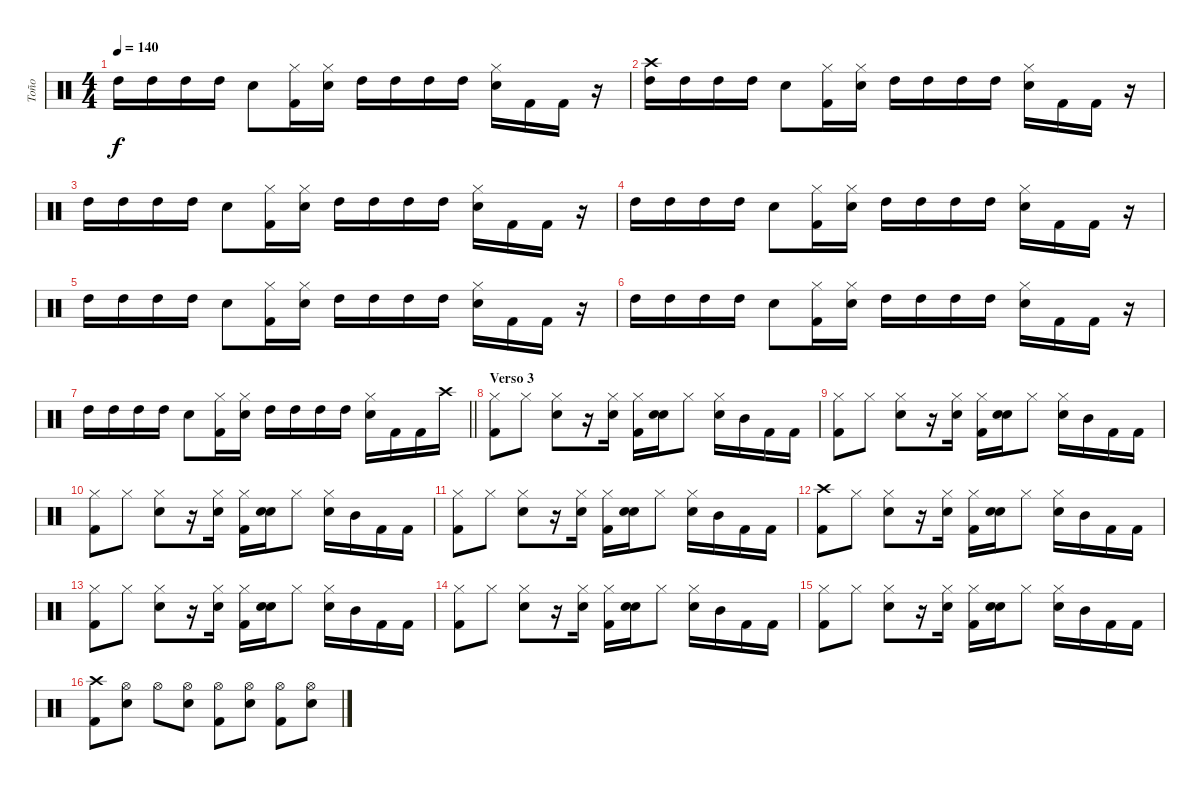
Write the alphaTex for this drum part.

\track ("Toño" "Toño") {instrument percussion}
\staff {score}
\articulation defaults
\ts (4 4)
\tempo 140
\clef neutral
\ks c "High Tom (hit)".16{dy f} "High Tom (hit)".16 "High Tom (hit)".16 "High Tom (hit)".16 "Electric Snare (hit)".8
("Hi-Hat (closed)" "Kick (hit) 2").16 ("Hi-Hat (closed)" "Electric Snare (hit)").16 "High Tom (hit)".16 "High Tom (hit)".16 "High Tom (hit)".16 "High Tom (hit)".16 ("Hi-Hat (closed)" "Electric Snare (hit)").16 "Kick (hit) 2".16 "Kick (hit) 2".16 r.16 |
("Crash high (hit)" "High Tom (hit)").16 "High Tom (hit)".16 "High Tom (hit)".16 "High Tom (hit)".16 "Electric Snare (hit)".8 ("Hi-Hat (closed)" "Kick (hit) 2").16 ("Hi-Hat (closed)" "Electric Snare (hit)").16 "High Tom (hit)".16 "High Tom (hit)".16 "High Tom (hit)".16 "High Tom (hit)".16 ("Hi-Hat (closed)" "Electric Snare (hit)").16 "Kick (hit) 2".16 "Kick (hit) 2".16 r.16 |
"High Tom (hit)".16 "High Tom (hit)".16 "High Tom (hit)".16 "High Tom (hit)".16 "Electric Snare (hit)".8 ("Hi-Hat (closed)" "Kick (hit) 2").16 ("Hi-Hat (closed)" "Electric Snare (hit)").16 "High Tom (hit)".16 "High Tom (hit)".16 "High Tom (hit)".16 "High Tom (hit)".16 ("Hi-Hat (closed)" "Electric Snare (hit)").16 "Kick (hit) 2".16 "Kick (hit) 2".16 r.16 |
"High Tom (hit)".16 "High Tom (hit)".16 "High Tom (hit)".16 "High Tom (hit)".16 "Electric Snare (hit)".8 ("Hi-Hat (closed)" "Kick (hit) 2").16 ("Hi-Hat (closed)" "Electric Snare (hit)").16 "High Tom (hit)".16 "High Tom (hit)".16 "High Tom (hit)".16 "High Tom (hit)".16 ("Hi-Hat (closed)" "Electric Snare (hit)").16 "Kick (hit) 2".16 "Kick (hit) 2".16 r.16 |
"High Tom (hit)".16 "High Tom (hit)".16 "High Tom (hit)".16 "High Tom (hit)".16 "Electric Snare (hit)".8 ("Hi-Hat (closed)" "Kick (hit) 2").16 ("Hi-Hat (closed)" "Electric Snare (hit)").16 "High Tom (hit)".16 "High Tom (hit)".16 "High Tom (hit)".16 "High Tom (hit)".16 ("Hi-Hat (closed)" "Electric Snare (hit)").16 "Kick (hit) 2".16 "Kick (hit) 2".16 r.16 |
"High Tom (hit)".16 "High Tom (hit)".16 "High Tom (hit)".16 "High Tom (hit)".16 "Electric Snare (hit)".8 ("Hi-Hat (closed)" "Kick (hit) 2").16 ("Hi-Hat (closed)" "Electric Snare (hit)").16 "High Tom (hit)".16 "High Tom (hit)".16 "High Tom (hit)".16 "High Tom (hit)".16 ("Hi-Hat (closed)" "Electric Snare (hit)").16 "Kick (hit) 2".16 "Kick (hit) 2".16 r.16 |
\barLineRight lightlight "High Tom (hit)".16 "High Tom (hit)".16 "High Tom (hit)".16 "High Tom (hit)".16 "Electric Snare (hit)".8
("Hi-Hat (closed)" "Kick (hit) 2").16 ("Hi-Hat (closed)" "Electric Snare (hit)").16 "High Tom (hit)".16 "High Tom (hit)".16 "High Tom (hit)".16 "High Tom (hit)".16 ("Hi-Hat (closed)" "Electric Snare (hit)").16 "Kick (hit) 2".16 "Kick (hit) 2".16 "Crash high (hit)".16 |
\section ("" "Verso 3")
("Hi-Hat (closed)" "Kick (hit) 2").8 "Hi-Hat (closed)".8 ("Hi-Hat (closed)" "Electric Snare (hit)").8 r.16 ("Hi-Hat (closed)" "Electric Snare (hit)").16 ("Hi-Hat (closed)" "Kick (hit) 2").16 ("Electric Snare (hit)" "Electric Snare (hit)").16 "Hi-Hat (closed)".8 ("Hi-Hat (closed)" "Electric Snare (hit)").16 "Mid Tom (hit)".16 "Kick (hit) 2".16 "Kick (hit) 2".16 |
("Hi-Hat (closed)" "Kick (hit) 2").8 "Hi-Hat (closed)".8 ("Hi-Hat (closed)" "Electric Snare (hit)").8 r.16 ("Hi-Hat (closed)" "Electric Snare (hit)").16 ("Hi-Hat (closed)" "Kick (hit) 2").16 ("Electric Snare (hit)" "Electric Snare (hit)").16 "Hi-Hat (closed)".8 ("Hi-Hat (closed)" "Electric Snare (hit)").16 "Mid Tom (hit)".16 "Kick (hit) 2".16 "Kick (hit) 2".16 |
("Hi-Hat (closed)" "Kick (hit) 2").8 "Hi-Hat (closed)".8 ("Hi-Hat (closed)" "Electric Snare (hit)").8 r.16 ("Hi-Hat (closed)" "Electric Snare (hit)").16 ("Hi-Hat (closed)" "Kick (hit) 2").16 ("Electric Snare (hit)" "Electric Snare (hit)").16 "Hi-Hat (closed)".8 ("Hi-Hat (closed)" "Electric Snare (hit)").16 "Mid Tom (hit)".16 "Kick (hit) 2".16 "Kick (hit) 2".16 |
("Hi-Hat (closed)" "Kick (hit) 2").8 "Hi-Hat (closed)".8 ("Hi-Hat (closed)" "Electric Snare (hit)").8 r.16 ("Hi-Hat (closed)" "Electric Snare (hit)").16 ("Hi-Hat (closed)" "Kick (hit) 2").16 ("Electric Snare (hit)" "Electric Snare (hit)").16 "Hi-Hat (closed)".8 ("Hi-Hat (closed)" "Electric Snare (hit)").16 "Mid Tom (hit)".16 "Kick (hit) 2".16 "Kick (hit) 2".16 |
("Crash high (hit)" "Kick (hit) 2").8 "Hi-Hat (closed)".8 ("Hi-Hat (closed)" "Electric Snare (hit)").8 r.16 ("Hi-Hat (closed)" "Electric Snare (hit)").16 ("Hi-Hat (closed)" "Kick (hit) 2").16 ("Electric Snare (hit)" "Electric Snare (hit)").16 "Hi-Hat (closed)".8 ("Hi-Hat (closed)" "Electric Snare (hit)").16 "Mid Tom (hit)".16 "Kick (hit) 2".16 "Kick (hit) 2".16 |
("Hi-Hat (closed)" "Kick (hit) 2").8 "Hi-Hat (closed)".8 ("Hi-Hat (closed)" "Electric Snare (hit)").8 r.16 ("Hi-Hat (closed)" "Electric Snare (hit)").16 ("Hi-Hat (closed)" "Kick (hit) 2").16 ("Electric Snare (hit)" "Electric Snare (hit)").16 "Hi-Hat (closed)".8 ("Hi-Hat (closed)" "Electric Snare (hit)").16 "Mid Tom (hit)".16 "Kick (hit) 2".16 "Kick (hit) 2".16 |
("Hi-Hat (closed)" "Kick (hit) 2").8 "Hi-Hat (closed)".8 ("Hi-Hat (closed)" "Electric Snare (hit)").8 r.16 ("Hi-Hat (closed)" "Electric Snare (hit)").16 ("Hi-Hat (closed)" "Kick (hit) 2").16 ("Electric Snare (hit)" "Electric Snare (hit)").16 "Hi-Hat (closed)".8 ("Hi-Hat (closed)" "Electric Snare (hit)").16 "Mid Tom (hit)".16 "Kick (hit) 2".16 "Kick (hit) 2".16 |
("Hi-Hat (closed)" "Kick (hit) 2").8 "Hi-Hat (closed)".8 ("Hi-Hat (closed)" "Electric Snare (hit)").8 r.16 ("Hi-Hat (closed)" "Electric Snare (hit)").16 ("Hi-Hat (closed)" "Kick (hit) 2").16 ("Electric Snare (hit)" "Electric Snare (hit)").16 "Hi-Hat (closed)".8 ("Hi-Hat (closed)" "Electric Snare (hit)").16 "Mid Tom (hit)".16 "Kick (hit) 2".16 "Kick (hit) 2".16 |
("Crash high (hit)" "Kick (hit) 2").8 ("Hi-Hat (open)" "Electric Snare (hit)").8 "Hi-Hat (open)".8 ("Hi-Hat (open)" "Electric Snare (hit)").8 ("Hi-Hat (open)" "Kick (hit) 2").8 ("Hi-Hat (open)" "Electric Snare (hit)").8 ("Hi-Hat (open)" "Kick (hit) 2").8 ("Hi-Hat (open)" "Electric Snare (hit)").8
